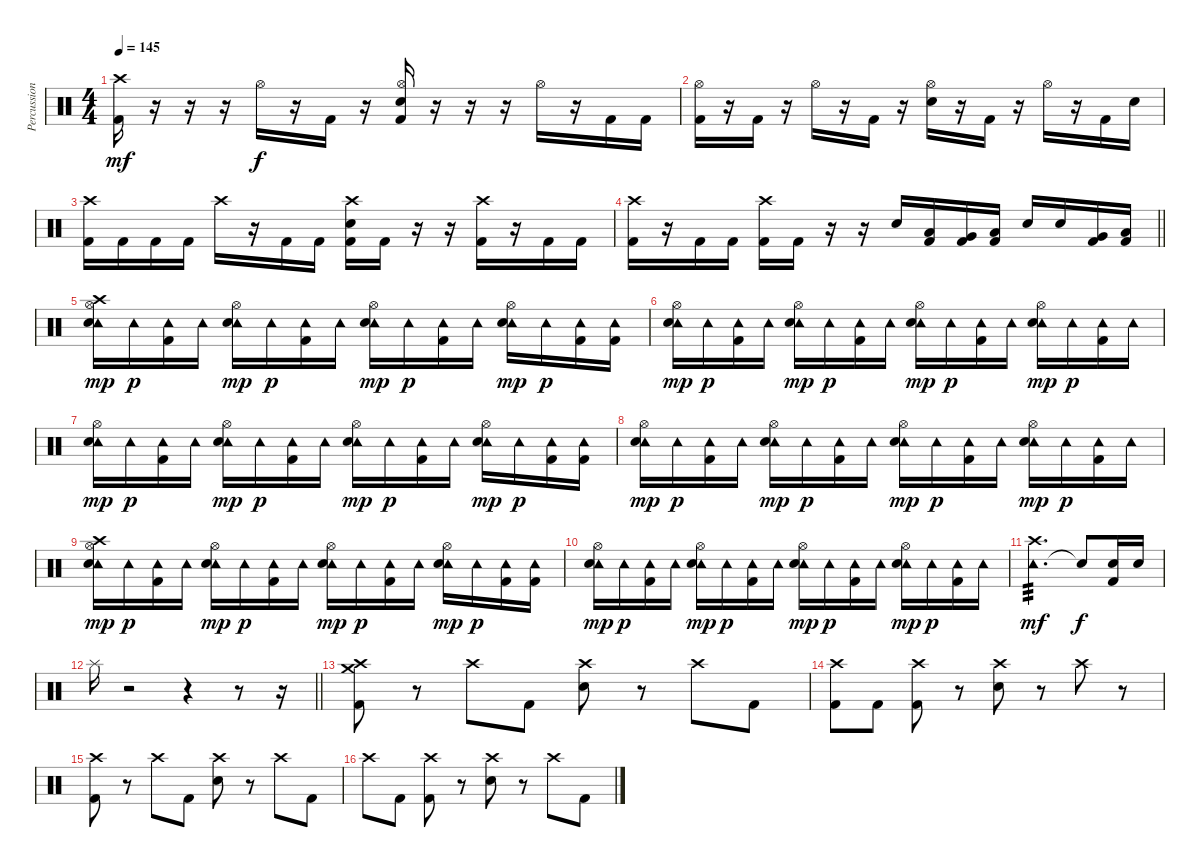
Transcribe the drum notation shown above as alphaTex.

\track ("Percussions" "Percussion") {instrument percussion}
\staff {score}
\articulation defaults
\ts (4 4)
\tempo 145
\clef neutral
\ks c
("Crash high (hit)" "Kick (hit) 2").16{dy mf} r.16 r.16 r.16 "Hi-Hat (open)".16{dy f} r.16 "Kick (hit) 2".16 r.16 ("Hi-Hat (open)" "Electric Snare (hit)" "Kick (hit) 2").16 r.16 r.16 r.16 "Hi-Hat (open)".16 r.16 "Kick (hit) 2".16 "Kick (hit) 2".16 |
("Hi-Hat (open)" "Kick (hit) 2").16 r.16 "Kick (hit) 2".16 r.16 "Hi-Hat (open)".16 r.16 "Kick (hit) 2".16 r.16 ("Hi-Hat (open)" "Electric Snare (hit)").16 r.16 "Kick (hit) 2".16 r.16 "Hi-Hat (open)".16 r.16 "Kick (hit) 2".16 "Electric Snare (hit)".16 |
("Crash high (hit)" "Kick (hit) 2").16 "Kick (hit) 2".16 "Kick (hit) 2".16 "Kick (hit) 2".16 "Crash high (hit)".16 r.16 "Kick (hit) 2".16 "Kick (hit) 2".16 ("Crash high (hit)" "Electric Snare (hit)" "Kick (hit) 2").16 "Kick (hit) 2".16 r.16 r.16 ("Crash high (hit)" "Kick (hit) 2").16 r.16 "Kick (hit) 2".16 "Kick (hit) 2".16 |
\barLineRight lightlight
("Crash high (hit)" "Kick (hit) 2").16 r.16 "Kick (hit) 2".16 "Kick (hit) 2".16 ("Crash high (hit)" "Kick (hit) 2").16 "Kick (hit) 2".16 r.16 r.16 "Electric Snare (hit)".16 ("Low Tom (hit)" "Kick (hit) 2").16 ("Very Low Tom (hit)" "Kick (hit) 2").16 ("Low Floor Tom (hit)" "Kick (hit) 2").16 "Electric Snare (hit)".16 "Electric Snare (hit)".16 ("Very Low Tom (hit)" "Kick (hit) 2").16 ("Low Floor Tom (hit)" "Kick (hit) 2").16 |
\section ("" "")
("Tambourine (hit)" "Crash high (hit)" "Hi-Hat (open)" "Electric Snare (hit)").16{dy mp} "Tambourine (hit)".16{dy p} ("Tambourine (hit)" "Kick (hit) 2").16 "Tambourine (hit)".16 ("Tambourine (hit)" "Hi-Hat (open)" "Electric Snare (hit)").16{dy mp} "Tambourine (hit)".16{dy p} ("Tambourine (hit)" "Kick (hit) 2").16 "Tambourine (hit)".16 ("Tambourine (hit)" "Hi-Hat (open)" "Electric Snare (hit)").16{dy mp} "Tambourine (hit)".16{dy p} ("Tambourine (hit)" "Kick (hit) 2").16 "Tambourine (hit)".16 ("Tambourine (hit)" "Hi-Hat (open)" "Electric Snare (hit)").16{dy mp} "Tambourine (hit)".16{dy p} ("Tambourine (hit)" "Kick (hit) 2").16 ("Tambourine (hit)" "Kick (hit) 2").16 |
("Tambourine (hit)" "Hi-Hat (open)" "Electric Snare (hit)").16{dy mp} "Tambourine (hit)".16{dy p} ("Tambourine (hit)" "Kick (hit) 2").16 "Tambourine (hit)".16 ("Tambourine (hit)" "Hi-Hat (open)" "Electric Snare (hit)").16{dy mp} "Tambourine (hit)".16{dy p} ("Tambourine (hit)" "Kick (hit) 2").16 "Tambourine (hit)".16 ("Tambourine (hit)" "Hi-Hat (open)" "Electric Snare (hit)").16{dy mp} "Tambourine (hit)".16{dy p} ("Tambourine (hit)" "Kick (hit) 2").16 "Tambourine (hit)".16 ("Tambourine (hit)" "Hi-Hat (open)" "Electric Snare (hit)").16{dy mp} "Tambourine (hit)".16{dy p} ("Tambourine (hit)" "Kick (hit) 2").16 "Tambourine (hit)".16 |
("Tambourine (hit)" "Hi-Hat (open)" "Electric Snare (hit)").16{dy mp} "Tambourine (hit)".16{dy p} ("Tambourine (hit)" "Kick (hit) 2").16 "Tambourine (hit)".16 ("Tambourine (hit)" "Hi-Hat (open)" "Electric Snare (hit)").16{dy mp} "Tambourine (hit)".16{dy p} ("Tambourine (hit)" "Kick (hit) 2").16 "Tambourine (hit)".16 ("Tambourine (hit)" "Hi-Hat (open)" "Electric Snare (hit)").16{dy mp} "Tambourine (hit)".16{dy p} ("Tambourine (hit)" "Kick (hit) 2").16 "Tambourine (hit)".16 ("Tambourine (hit)" "Hi-Hat (open)" "Electric Snare (hit)").16{dy mp} "Tambourine (hit)".16{dy p} ("Tambourine (hit)" "Kick (hit) 2").16 ("Tambourine (hit)" "Kick (hit) 2").16 |
("Tambourine (hit)" "Hi-Hat (open)" "Electric Snare (hit)").16{dy mp} "Tambourine (hit)".16{dy p} ("Tambourine (hit)" "Kick (hit) 2").16 "Tambourine (hit)".16 ("Tambourine (hit)" "Hi-Hat (open)" "Electric Snare (hit)").16{dy mp} "Tambourine (hit)".16{dy p} ("Tambourine (hit)" "Kick (hit) 2").16 "Tambourine (hit)".16 ("Tambourine (hit)" "Hi-Hat (open)" "Electric Snare (hit)").16{dy mp} "Tambourine (hit)".16{dy p} ("Tambourine (hit)" "Kick (hit) 2").16 "Tambourine (hit)".16 ("Tambourine (hit)" "Hi-Hat (open)" "Electric Snare (hit)").16{dy mp} "Tambourine (hit)".16{dy p} ("Tambourine (hit)" "Kick (hit) 2").16 "Tambourine (hit)".16 |
("Tambourine (hit)" "Crash high (hit)" "Hi-Hat (open)" "Electric Snare (hit)").16{dy mp} "Tambourine (hit)".16{dy p} ("Tambourine (hit)" "Kick (hit) 2").16 "Tambourine (hit)".16 ("Tambourine (hit)" "Hi-Hat (open)" "Electric Snare (hit)").16{dy mp} "Tambourine (hit)".16{dy p} ("Tambourine (hit)" "Kick (hit) 2").16 "Tambourine (hit)".16 ("Tambourine (hit)" "Hi-Hat (open)" "Electric Snare (hit)").16{dy mp} "Tambourine (hit)".16{dy p} ("Tambourine (hit)" "Kick (hit) 2").16 "Tambourine (hit)".16 ("Tambourine (hit)" "Hi-Hat (open)" "Electric Snare (hit)").16{dy mp} "Tambourine (hit)".16{dy p} ("Tambourine (hit)" "Kick (hit) 2").16 ("Tambourine (hit)" "Kick (hit) 2").16 |
("Tambourine (hit)" "Hi-Hat (open)" "Electric Snare (hit)").16{dy mp} "Tambourine (hit)".16{dy p} ("Tambourine (hit)" "Kick (hit) 2").16 "Tambourine (hit)".16 ("Tambourine (hit)" "Hi-Hat (open)" "Electric Snare (hit)").16{dy mp} "Tambourine (hit)".16{dy p} ("Tambourine (hit)" "Kick (hit) 2").16 "Tambourine (hit)".16 ("Tambourine (hit)" "Hi-Hat (open)" "Electric Snare (hit)").16{dy mp} "Tambourine (hit)".16{dy p} ("Tambourine (hit)" "Kick (hit) 2").16 "Tambourine (hit)".16 ("Tambourine (hit)" "Hi-Hat (open)" "Electric Snare (hit)").16{dy mp} "Tambourine (hit)".16{dy p} ("Tambourine (hit)" "Kick (hit) 2").16 "Tambourine (hit)".16 |
("Tambourine (hit)" "Crash high (hit)").2{d tp 3 dy mf} "Snare (hit)"{t}.8{dy f} ("Snare (hit) 2" "Kick (hit) 2").16 "Electric Snare (hit)".16 |
\barLineRight lightlight "Splash (hit)".16
r.2 r.4 r.8 r.16 |
\section ("" "")
("Crash medium (hit)" "Crash high (hit)" "Kick (hit) 2").8 r.8 "Crash high (hit)".8 "Kick (hit) 2".8 ("Crash high (hit)" "Electric Snare (hit)").8 r.8 "Crash high (hit)".8 "Kick (hit) 2".8 |
("Crash high (hit)" "Kick (hit) 2").8 "Kick (hit) 2".8 ("Crash high (hit)" "Kick (hit) 2").8 r.8 ("Crash high (hit)" "Electric Snare (hit)").8 r.8 "Crash high (hit)".8 r.8 |
("Crash high (hit)" "Kick (hit) 2").8 r.8 "Crash high (hit)".8 "Kick (hit) 2".8 ("Crash high (hit)" "Electric Snare (hit)").8 r.8 "Crash high (hit)".8 "Kick (hit) 2".8 |
"Crash high (hit)".8 "Kick (hit) 2".8 ("Crash high (hit)" "Kick (hit) 2").8 r.8 ("Crash high (hit)" "Electric Snare (hit)").8 r.8 "Crash high (hit)".8 "Kick (hit) 2".8
